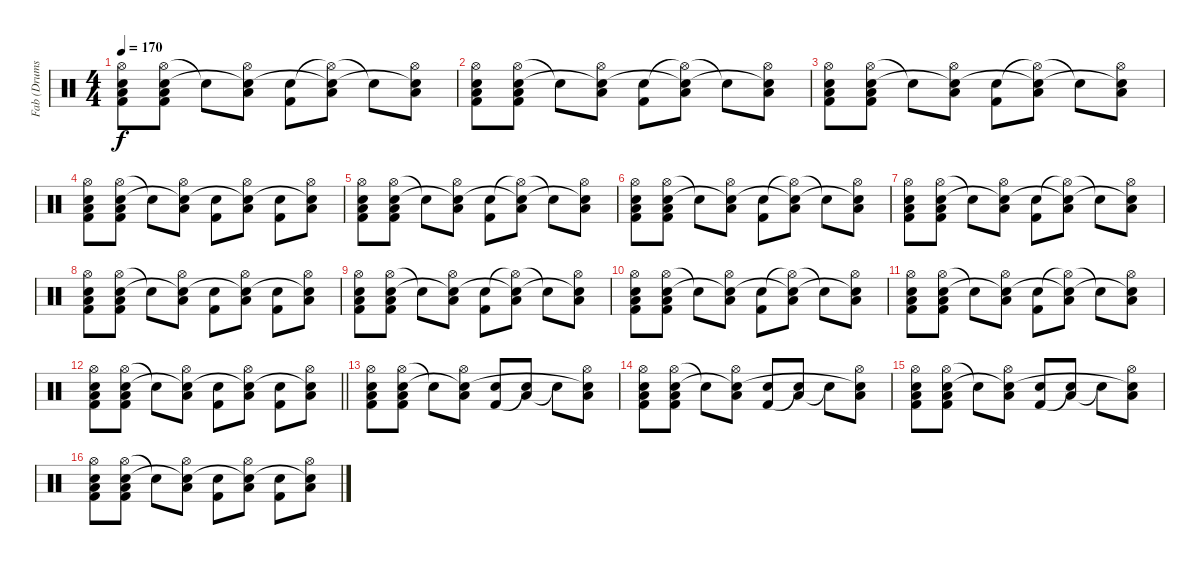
\track ("Fab (Drums)" "Fab (Drums") {instrument percussion}
\staff {score}
\articulation defaults
\ts (4 4)
\tempo 170
\clef neutral
\ks c
("Hi-Hat (open)" "Low Floor Tom (hit)" "Electric Snare (hit)" "Kick (hit) 2").8{dy f} ("Hi-Hat (open)" "Low Floor Tom (hit)" "Electric Snare (hit)" "Kick (hit) 2").8 "Snare (hit)"{t}.8 ("Hi-Hat (open)" "Low Floor Tom (hit)" "Snare (hit)"{t}).8 ("Electric Snare (hit)" "Kick (hit) 2").8 ("Hi-Hat (open)"{t} "Low Floor Tom (hit)" "Snare (hit)"{t}).8 "Snare (hit)"{t}.8 ("Hi-Hat (open)" "Low Floor Tom (hit)" "Snare (hit)"{t}).8 |
("Hi-Hat (open)" "Low Floor Tom (hit)" "Electric Snare (hit)" "Kick (hit) 2").8 ("Hi-Hat (open)" "Low Floor Tom (hit)" "Electric Snare (hit)" "Kick (hit) 2").8 "Snare (hit)"{t}.8 ("Hi-Hat (open)" "Low Floor Tom (hit)" "Snare (hit)"{t}).8 ("Electric Snare (hit)" "Kick (hit) 2").8 ("Hi-Hat (open)"{t} "Low Floor Tom (hit)" "Snare (hit)"{t}).8 "Snare (hit)"{t}.8 ("Hi-Hat (open)" "Low Floor Tom (hit)" "Snare (hit)"{t}).8 |
("Hi-Hat (open)" "Low Floor Tom (hit)" "Electric Snare (hit)" "Kick (hit) 2").8 ("Hi-Hat (open)" "Low Floor Tom (hit)" "Electric Snare (hit)" "Kick (hit) 2").8 "Snare (hit)"{t}.8 ("Hi-Hat (open)" "Low Floor Tom (hit)" "Snare (hit)"{t}).8 ("Electric Snare (hit)" "Kick (hit) 2").8 ("Hi-Hat (open)"{t} "Low Floor Tom (hit)" "Snare (hit)"{t}).8 "Snare (hit)"{t}.8 ("Hi-Hat (open)" "Low Floor Tom (hit)" "Snare (hit)"{t}).8 |
("Hi-Hat (open)" "Low Floor Tom (hit)" "Electric Snare (hit)" "Kick (hit) 2").8 ("Hi-Hat (open)" "Low Floor Tom (hit)" "Electric Snare (hit)" "Kick (hit) 2").8 "Snare (hit)"{t}.8 ("Hi-Hat (open)" "Low Floor Tom (hit)" "Snare (hit)"{t}).8 ("Electric Snare (hit)" "Kick (hit) 2").8 ("Hi-Hat (open)" "Low Floor Tom (hit)" "Snare (hit)"{t}).8 ("Electric Snare (hit)" "Kick (hit) 2").8 ("Hi-Hat (open)" "Low Floor Tom (hit)" "Snare (hit)"{t}).8 |
("Hi-Hat (open)" "Low Floor Tom (hit)" "Electric Snare (hit)" "Kick (hit) 2").8 ("Hi-Hat (open)" "Low Floor Tom (hit)" "Electric Snare (hit)" "Kick (hit) 2").8 "Snare (hit)"{t}.8 ("Hi-Hat (open)" "Low Floor Tom (hit)" "Snare (hit)"{t}).8 ("Electric Snare (hit)" "Kick (hit) 2").8 ("Hi-Hat (open)"{t} "Low Floor Tom (hit)" "Snare (hit)"{t}).8 "Snare (hit)"{t}.8 ("Hi-Hat (open)" "Low Floor Tom (hit)" "Snare (hit)"{t}).8 |
("Hi-Hat (open)" "Low Floor Tom (hit)" "Electric Snare (hit)" "Kick (hit) 2").8 ("Hi-Hat (open)" "Low Floor Tom (hit)" "Electric Snare (hit)" "Kick (hit) 2").8 "Snare (hit)"{t}.8 ("Hi-Hat (open)" "Low Floor Tom (hit)" "Snare (hit)"{t}).8 ("Electric Snare (hit)" "Kick (hit) 2").8 ("Hi-Hat (open)"{t} "Low Floor Tom (hit)" "Snare (hit)"{t}).8 "Snare (hit)"{t}.8 ("Hi-Hat (open)" "Low Floor Tom (hit)" "Snare (hit)"{t}).8 |
("Hi-Hat (open)" "Low Floor Tom (hit)" "Electric Snare (hit)" "Kick (hit) 2").8 ("Hi-Hat (open)" "Low Floor Tom (hit)" "Electric Snare (hit)" "Kick (hit) 2").8 "Snare (hit)"{t}.8 ("Hi-Hat (open)" "Low Floor Tom (hit)" "Snare (hit)"{t}).8 ("Electric Snare (hit)" "Kick (hit) 2").8 ("Hi-Hat (open)"{t} "Low Floor Tom (hit)" "Snare (hit)"{t}).8 "Snare (hit)"{t}.8 ("Hi-Hat (open)" "Low Floor Tom (hit)" "Snare (hit)"{t}).8 |
("Hi-Hat (open)" "Low Floor Tom (hit)" "Electric Snare (hit)" "Kick (hit) 2").8 ("Hi-Hat (open)" "Low Floor Tom (hit)" "Electric Snare (hit)" "Kick (hit) 2").8 "Snare (hit)"{t}.8 ("Hi-Hat (open)" "Low Floor Tom (hit)" "Snare (hit)"{t}).8 ("Electric Snare (hit)" "Kick (hit) 2").8 ("Hi-Hat (open)" "Low Floor Tom (hit)" "Snare (hit)"{t}).8 ("Electric Snare (hit)" "Kick (hit) 2").8 ("Hi-Hat (open)" "Low Floor Tom (hit)" "Snare (hit)"{t}).8 |
("Hi-Hat (open)" "Low Floor Tom (hit)" "Electric Snare (hit)" "Kick (hit) 2").8 ("Hi-Hat (open)" "Low Floor Tom (hit)" "Electric Snare (hit)" "Kick (hit) 2").8 "Snare (hit)"{t}.8 ("Hi-Hat (open)" "Low Floor Tom (hit)" "Snare (hit)"{t}).8 ("Electric Snare (hit)" "Kick (hit) 2").8 ("Hi-Hat (open)"{t} "Low Floor Tom (hit)" "Snare (hit)"{t}).8 "Snare (hit)"{t}.8 ("Hi-Hat (open)" "Low Floor Tom (hit)" "Snare (hit)"{t}).8 |
("Hi-Hat (open)" "Low Floor Tom (hit)" "Electric Snare (hit)" "Kick (hit) 2").8 ("Hi-Hat (open)" "Low Floor Tom (hit)" "Electric Snare (hit)" "Kick (hit) 2").8 "Snare (hit)"{t}.8 ("Hi-Hat (open)" "Low Floor Tom (hit)" "Snare (hit)"{t}).8 ("Electric Snare (hit)" "Kick (hit) 2").8 ("Hi-Hat (open)"{t} "Low Floor Tom (hit)" "Snare (hit)"{t}).8 "Snare (hit)"{t}.8 ("Hi-Hat (open)" "Low Floor Tom (hit)" "Snare (hit)"{t}).8 |
("Hi-Hat (open)" "Low Floor Tom (hit)" "Electric Snare (hit)" "Kick (hit) 2").8 ("Hi-Hat (open)" "Low Floor Tom (hit)" "Electric Snare (hit)" "Kick (hit) 2").8 "Snare (hit)"{t}.8 ("Hi-Hat (open)" "Low Floor Tom (hit)" "Snare (hit)"{t}).8 ("Electric Snare (hit)" "Kick (hit) 2").8 ("Hi-Hat (open)"{t} "Low Floor Tom (hit)" "Snare (hit)"{t}).8 "Snare (hit)"{t}.8 ("Hi-Hat (open)" "Low Floor Tom (hit)" "Snare (hit)"{t}).8 |
\barLineRight lightlight
("Hi-Hat (open)" "Low Floor Tom (hit)" "Electric Snare (hit)" "Kick (hit) 2").8 ("Hi-Hat (open)" "Low Floor Tom (hit)" "Electric Snare (hit)" "Kick (hit) 2").8 "Snare (hit)"{t}.8 ("Hi-Hat (open)" "Low Floor Tom (hit)" "Snare (hit)"{t}).8 ("Electric Snare (hit)" "Kick (hit) 2").8 ("Hi-Hat (open)" "Low Floor Tom (hit)" "Snare (hit)"{t}).8 ("Electric Snare (hit)" "Kick (hit) 2").8 ("Hi-Hat (open)" "Low Floor Tom (hit)" "Snare (hit)"{t}).8 |
("Hi-Hat (open)" "Low Floor Tom (hit)" "Electric Snare (hit)" "Kick (hit) 2").8 ("Hi-Hat (open)" "Low Floor Tom (hit)" "Electric Snare (hit)" "Kick (hit) 2").8 "Snare (hit)"{t}.8 ("Hi-Hat (open)" "Low Floor Tom (hit)" "Snare (hit)"{t}).8 ("Electric Snare (hit)" "Kick (hit) 2").8 ("Low Floor Tom (hit)" "Snare (hit)"{t}).8 "Snare (hit)"{t}.8 ("Hi-Hat (open)" "Low Floor Tom (hit)" "Snare (hit)"{t}).8 |
("Hi-Hat (open)" "Low Floor Tom (hit)" "Electric Snare (hit)" "Kick (hit) 2").8 ("Hi-Hat (open)" "Low Floor Tom (hit)" "Electric Snare (hit)" "Kick (hit) 2").8 "Snare (hit)"{t}.8 ("Hi-Hat (open)" "Low Floor Tom (hit)" "Snare (hit)"{t}).8 ("Electric Snare (hit)" "Kick (hit) 2").8 ("Low Floor Tom (hit)" "Snare (hit)"{t}).8 "Snare (hit)"{t}.8 ("Hi-Hat (open)" "Low Floor Tom (hit)" "Snare (hit)"{t}).8 |
("Hi-Hat (open)" "Low Floor Tom (hit)" "Electric Snare (hit)" "Kick (hit) 2").8 ("Hi-Hat (open)" "Low Floor Tom (hit)" "Electric Snare (hit)" "Kick (hit) 2").8 "Snare (hit)"{t}.8 ("Hi-Hat (open)" "Low Floor Tom (hit)" "Snare (hit)"{t}).8 ("Electric Snare (hit)" "Kick (hit) 2").8 ("Low Floor Tom (hit)" "Snare (hit)"{t}).8 "Snare (hit)"{t}.8 ("Hi-Hat (open)" "Low Floor Tom (hit)" "Snare (hit)"{t}).8 |
("Hi-Hat (open)" "Low Floor Tom (hit)" "Electric Snare (hit)" "Kick (hit) 2").8 ("Hi-Hat (open)" "Low Floor Tom (hit)" "Electric Snare (hit)" "Kick (hit) 2").8 "Snare (hit)"{t}.8 ("Hi-Hat (open)" "Low Floor Tom (hit)" "Snare (hit)"{t}).8 ("Electric Snare (hit)" "Kick (hit) 2").8 ("Hi-Hat (open)" "Low Floor Tom (hit)" "Snare (hit)"{t}).8 ("Electric Snare (hit)" "Kick (hit) 2").8 ("Hi-Hat (open)" "Low Floor Tom (hit)" "Snare (hit)"{t}).8
